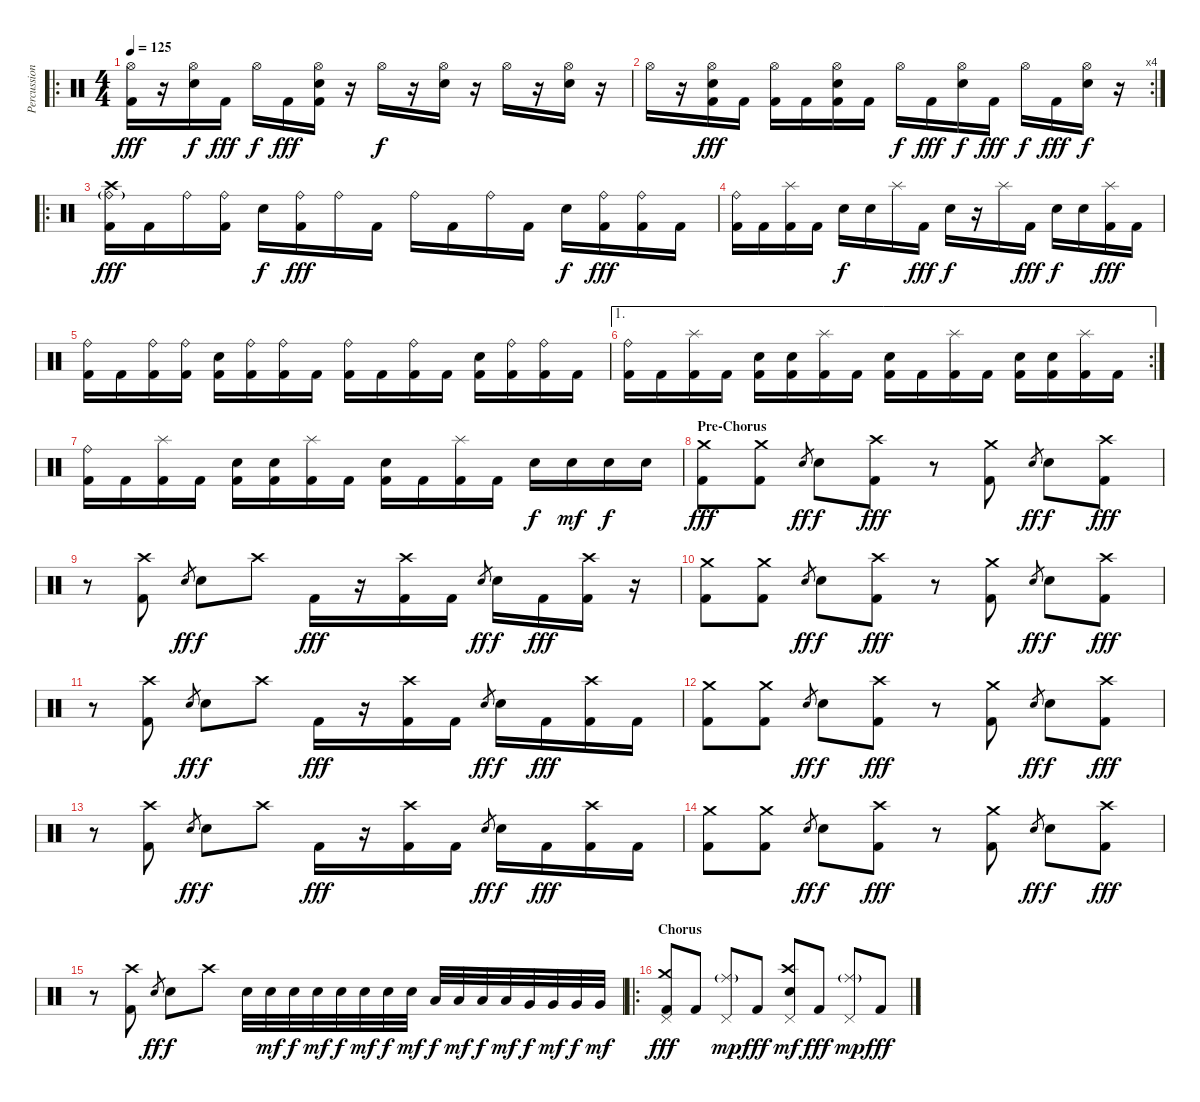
\track ("Percussion" "Percussion") {instrument percussion}
\staff {score}
\articulation defaults
\ro
\ts (4 4)
\tempo 125
\clef neutral
\ks c
("Hi-Hat (open)" "Kick (hit) 2").16{dy fff} r.16 ("Hi-Hat (open)" "Electric Snare (hit)").16{dy f} "Kick (hit) 2".16{dy fff} "Hi-Hat (open)".16{dy f} "Kick (hit) 2".16{dy fff} ("Hi-Hat (open)" "Electric Snare (hit)" "Kick (hit) 2").16 r.16 "Hi-Hat (open)".16{dy f} r.16 ("Hi-Hat (open)" "Electric Snare (hit)").16 r.16 "Hi-Hat (open)".16 r.16 ("Hi-Hat (open)" "Electric Snare (hit)").16 r.16 |
\rc 4 "Hi-Hat (open)".16
r.16 ("Hi-Hat (open)" "Electric Snare (hit)" "Kick (hit) 2").16{dy fff} "Kick (hit) 2".16 ("Hi-Hat (open)" "Kick (hit) 2").16 "Kick (hit) 2".16 ("Hi-Hat (open)" "Electric Snare (hit)" "Kick (hit) 2").16 "Kick (hit) 2".16 "Hi-Hat (open)".16{dy f} "Kick (hit) 2".16{dy fff} ("Hi-Hat (open)" "Electric Snare (hit)").16{dy f} "Kick (hit) 2".16{dy fff} "Hi-Hat (open)".16{dy f} "Kick (hit) 2".16{dy fff} ("Hi-Hat (open)" "Electric Snare (hit)").16{dy f} r.16 |
\ro
("Crash high (hit)" "Ride (bell)"{g} "Kick (hit) 2").16{dy fff} "Kick (hit) 2".16 "Ride (bell)".16 ("Ride (bell)" "Kick (hit) 2").16 "Electric Snare (hit)".16{dy f} ("Ride (bell)" "Kick (hit) 2").16{dy fff} "Ride (bell)".16 "Kick (hit) 2".16 "Ride (bell)".16 "Kick (hit) 2".16 "Ride (bell)".16 "Kick (hit) 2".16 "Electric Snare (hit)".16{dy f} ("Ride (bell)" "Kick (hit) 2").16{dy fff} ("Ride (bell)" "Kick (hit) 2").16 "Kick (hit) 2".16 |
("Ride (bell)" "Kick (hit) 2").16 "Kick (hit) 2".16 ("Splash (hit)" "Kick (hit) 2").16 "Kick (hit) 2".16 "Electric Snare (hit)".16{dy f} "Electric Snare (hit)".16 "Splash (hit)".16 "Kick (hit) 2".16{dy fff} "Electric Snare (hit)".16{dy f} r.16 "Splash (hit)".16 "Kick (hit) 2".16{dy fff} "Electric Snare (hit)".16{dy f} "Electric Snare (hit)".16 ("Splash (hit)" "Kick (hit) 2").16{dy fff} "Kick (hit) 2".16 |
("Ride (bell)" "Kick (hit) 2").16 "Kick (hit) 2".16 ("Ride (bell)" "Kick (hit) 2").16 ("Ride (bell)" "Kick (hit) 2").16 ("Electric Snare (hit)" "Kick (hit) 2").16 ("Ride (bell)" "Kick (hit) 2").16 ("Ride (bell)" "Kick (hit) 2").16 "Kick (hit) 2".16 ("Ride (bell)" "Kick (hit) 2").16 "Kick (hit) 2".16 ("Ride (bell)" "Kick (hit) 2").16 "Kick (hit) 2".16 ("Electric Snare (hit)" "Kick (hit) 2").16 ("Ride (bell)" "Kick (hit) 2").16 ("Ride (bell)" "Kick (hit) 2").16 "Kick (hit) 2".16 |
\ae 1
\rc 2
("Ride (bell)" "Kick (hit) 2").16 "Kick (hit) 2".16 ("Splash (hit)" "Kick (hit) 2").16 "Kick (hit) 2".16 ("Electric Snare (hit)" "Kick (hit) 2").16 ("Electric Snare (hit)" "Kick (hit) 2").16 ("Splash (hit)" "Kick (hit) 2").16 "Kick (hit) 2".16 ("Electric Snare (hit)" "Kick (hit) 2").16 "Kick (hit) 2".16 ("Splash (hit)" "Kick (hit) 2").16 "Kick (hit) 2".16 ("Electric Snare (hit)" "Kick (hit) 2").16 ("Electric Snare (hit)" "Kick (hit) 2").16 ("Splash (hit)" "Kick (hit) 2").16 "Kick (hit) 2".16 |
("Ride (bell)" "Kick (hit) 2").16 "Kick (hit) 2".16 ("Splash (hit)" "Kick (hit) 2").16 "Kick (hit) 2".16 ("Electric Snare (hit)" "Kick (hit) 2").16 ("Electric Snare (hit)" "Kick (hit) 2").16 ("Splash (hit)" "Kick (hit) 2").16 "Kick (hit) 2".16 ("Electric Snare (hit)" "Kick (hit) 2").16 "Kick (hit) 2".16 ("Splash (hit)" "Kick (hit) 2").16 "Kick (hit) 2".16 "Electric Snare (hit)".16{dy f} "Electric Snare (hit)".16{dy mf} "Electric Snare (hit)".16{dy f} "Electric Snare (hit)".16 |
\section ("" "Pre-Chorus")
("Crash medium (hit)" "Kick (hit) 2").8{dy fff} ("Crash medium (hit)" "Kick (hit) 2").8 "Electric Snare (hit)".8{gr dy ff} "Electric Snare (hit)".8{dy f} ("Crash high (hit)" "Kick (hit) 2").8{dy fff} r.8 ("Crash medium (hit)" "Kick (hit) 2").8 "Electric Snare (hit)".8{gr dy ff} "Electric Snare (hit)".8{dy f} ("Crash high (hit)" "Kick (hit) 2").8{dy fff} |
r.8 ("Crash high (hit)" "Kick (hit) 2").8 "Electric Snare (hit)".8{gr dy ff} "Electric Snare (hit)".8{dy f} "Crash high (hit)".8 "Kick (hit) 2".16{dy fff} r.16 ("Crash high (hit)" "Kick (hit) 2").16 "Kick (hit) 2".16 "Electric Snare (hit)".8{gr dy ff} "Electric Snare (hit)".16{dy f} "Kick (hit) 2".16{dy fff} ("Crash high (hit)" "Kick (hit) 2").16 r.16 |
("Crash medium (hit)" "Kick (hit) 2").8 ("Crash medium (hit)" "Kick (hit) 2").8 "Electric Snare (hit)".8{gr dy ff} "Electric Snare (hit)".8{dy f} ("Crash high (hit)" "Kick (hit) 2").8{dy fff} r.8 ("Crash medium (hit)" "Kick (hit) 2").8 "Electric Snare (hit)".8{gr dy ff} "Electric Snare (hit)".8{dy f} ("Crash high (hit)" "Kick (hit) 2").8{dy fff} |
r.8 ("Crash high (hit)" "Kick (hit) 2").8 "Electric Snare (hit)".8{gr dy ff} "Electric Snare (hit)".8{dy f} "Crash high (hit)".8 "Kick (hit) 2".16{dy fff} r.16 ("Crash high (hit)" "Kick (hit) 2").16 "Kick (hit) 2".16 "Electric Snare (hit)".8{gr dy ff} "Electric Snare (hit)".16{dy f} "Kick (hit) 2".16{dy fff} ("Crash high (hit)" "Kick (hit) 2").16 "Kick (hit) 2".16 |
("Crash medium (hit)" "Kick (hit) 2").8 ("Crash medium (hit)" "Kick (hit) 2").8 "Electric Snare (hit)".8{gr dy ff} "Electric Snare (hit)".8{dy f} ("Crash high (hit)" "Kick (hit) 2").8{dy fff} r.8 ("Crash medium (hit)" "Kick (hit) 2").8 "Electric Snare (hit)".8{gr dy ff} "Electric Snare (hit)".8{dy f} ("Crash high (hit)" "Kick (hit) 2").8{dy fff} |
r.8 ("Crash high (hit)" "Kick (hit) 2").8 "Electric Snare (hit)".8{gr dy ff} "Electric Snare (hit)".8{dy f} "Crash high (hit)".8 "Kick (hit) 2".16{dy fff} r.16 ("Crash high (hit)" "Kick (hit) 2").16 "Kick (hit) 2".16 "Electric Snare (hit)".8{gr dy ff} "Electric Snare (hit)".16{dy f} "Kick (hit) 2".16{dy fff} ("Crash high (hit)" "Kick (hit) 2").16 "Kick (hit) 2".16 |
("Crash medium (hit)" "Kick (hit) 2").8 ("Crash medium (hit)" "Kick (hit) 2").8 "Electric Snare (hit)".8{gr dy ff} "Electric Snare (hit)".8{dy f} ("Crash high (hit)" "Kick (hit) 2").8{dy fff} r.8 ("Crash medium (hit)" "Kick (hit) 2").8 "Electric Snare (hit)".8{gr dy ff} "Electric Snare (hit)".8{dy f} ("Crash high (hit)" "Kick (hit) 2").8{dy fff} |
r.8 ("Crash high (hit)" "Kick (hit) 2").8 "Electric Snare (hit)".8{gr dy ff} "Electric Snare (hit)".8{dy f} "Crash high (hit)".8 "Electric Snare (hit)".32 "Electric Snare (hit)".32{dy mf} "Electric Snare (hit)".32{dy f} "Electric Snare (hit)".32{dy mf} "Electric Snare (hit)".32{dy f} "Electric Snare (hit)".32{dy mf} "Electric Snare (hit)".32{dy f} "Electric Snare (hit)".32{dy mf} "Low Tom (hit)".32{dy f} "Low Tom (hit)".32{dy mf} "Low Tom (hit)".32{dy f} "Low Tom (hit)".32{dy mf} "Very Low Tom (hit)".32{dy f} "Very Low Tom (hit)".32{dy mf} "Very Low Tom (hit)".32{dy f} "Very Low Tom (hit)".32{dy mf} |
\ro
\section ("" "Chorus")
("Crash medium (hit)" "Pedal Hi-Hat (hit)" "Kick (hit) 2").8{dy fff} "Kick (hit) 2".8 ("Ride (middle)"{g} "Pedal Hi-Hat (hit)").8{dy mp} "Kick (hit) 2".8{dy fff} ("Crash high (hit)" "Pedal Hi-Hat (hit)" "Electric Snare (hit)").8{dy mf} "Kick (hit) 2".8{dy fff} ("Ride (middle)"{g} "Pedal Hi-Hat (hit)").8{dy mp} "Kick (hit) 2".8{dy fff}
